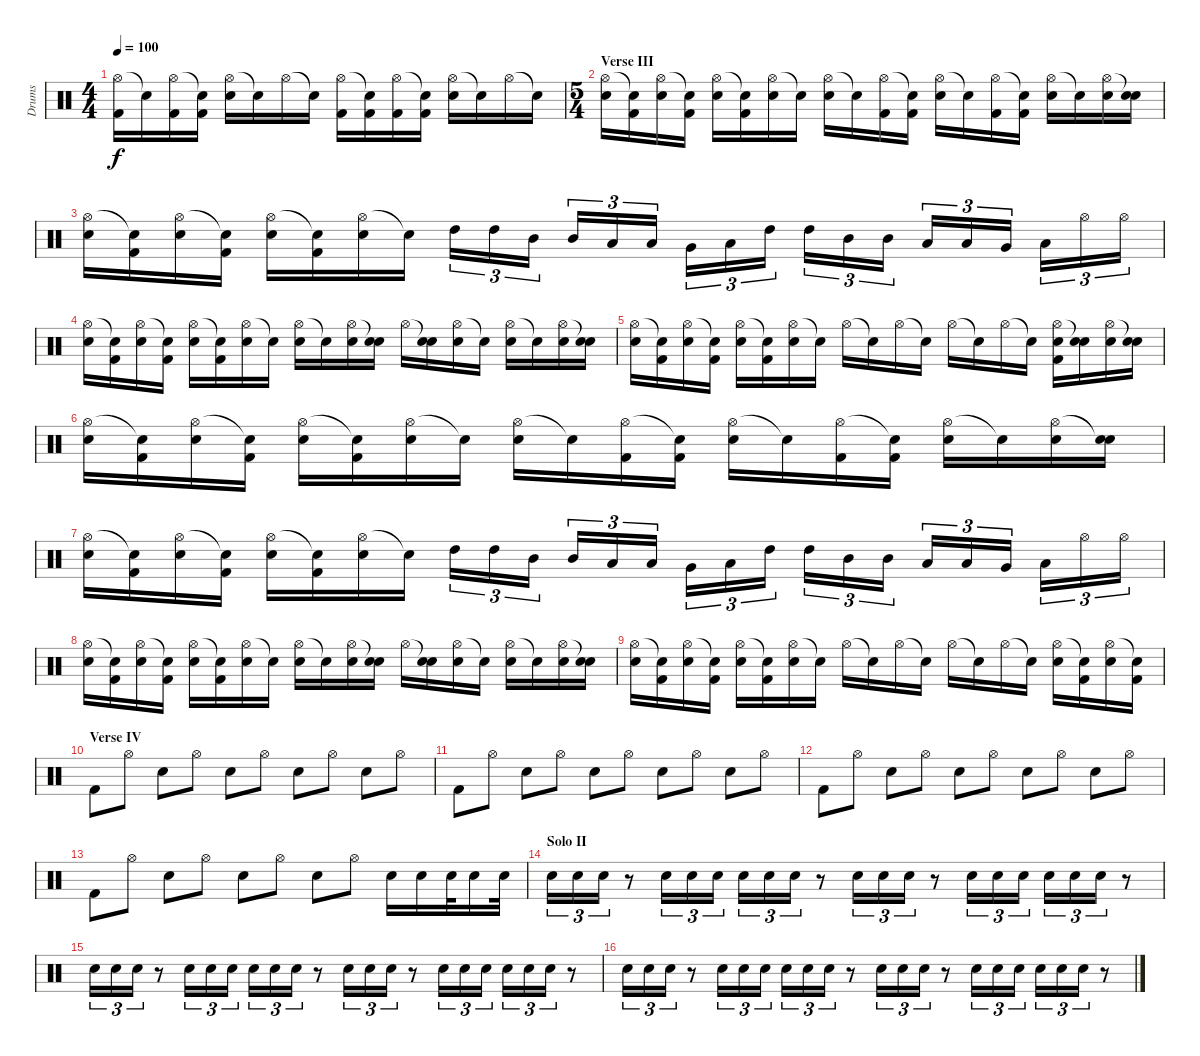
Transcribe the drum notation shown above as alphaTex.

\track ("Drums" "Drums") {instrument percussion}
\staff {score}
\articulation defaults
\ts (4 4)
\tempo 100
\clef neutral
\ks c
("Hi-Hat (open)" "Kick (hit) 2").16{dy f} "Snare (hit)"{t}.16 ("Hi-Hat (open)" "Kick (hit) 2").16 ("Snare (hit)"{t} "Kick (hit) 2").16 ("Hi-Hat (open)" "Electric Snare (hit)").16 "Snare (hit)"{t}.16 "Hi-Hat (open)".16 "Snare (hit)"{t}.16 ("Hi-Hat (open)" "Kick (hit) 2").16 ("Snare (hit)"{t} "Kick (hit) 2").16 ("Hi-Hat (open)" "Kick (hit) 2").16 ("Snare (hit)"{t} "Kick (hit) 2").16 ("Hi-Hat (open)" "Electric Snare (hit)").16 "Snare (hit)"{t}.16 "Hi-Hat (open)".16 "Snare (hit)"{t}.16 |
\ts (5 4)
\section ("" "Verse III")
("Hi-Hat (open)" "Electric Snare (hit)").16 ("Snare (hit)"{t} "Kick (hit) 2").16 ("Hi-Hat (open)" "Electric Snare (hit)").16 ("Snare (hit)"{t} "Kick (hit) 2").16 ("Hi-Hat (open)" "Electric Snare (hit)").16 ("Snare (hit)"{t} "Kick (hit) 2").16 ("Hi-Hat (open)" "Electric Snare (hit)").16 "Snare (hit)"{t}.16 ("Hi-Hat (open)" "Electric Snare (hit)").16 "Snare (hit)"{t}.16 ("Hi-Hat (open)" "Kick (hit) 2").16 ("Snare (hit)"{t} "Kick (hit) 2").16 ("Hi-Hat (open)" "Electric Snare (hit)").16 "Snare (hit)"{t}.16 ("Hi-Hat (open)" "Kick (hit) 2").16 ("Snare (hit)"{t} "Kick (hit) 2").16 ("Hi-Hat (open)" "Electric Snare (hit)").16 "Snare (hit)"{t}.16 ("Hi-Hat (open)" "Electric Snare (hit)").16 ("Snare (hit)"{t} "Electric Snare (hit)").16 |
("Hi-Hat (open)" "Electric Snare (hit)").16 ("Snare (hit)"{t} "Kick (hit) 2").16 ("Hi-Hat (open)" "Electric Snare (hit)").16 ("Snare (hit)"{t} "Kick (hit) 2").16 ("Hi-Hat (open)" "Electric Snare (hit)").16 ("Snare (hit)"{t} "Kick (hit) 2").16 ("Hi-Hat (open)" "Electric Snare (hit)").16 "Snare (hit)"{t}.16 "High Tom (hit)".16{tu (3 2)} "High Tom (hit)".16{tu (3 2)} "Mid Tom (hit)".16{tu (3 2)} "Mid Tom (hit)".16{tu (3 2)} "Low Tom (hit)".16{tu (3 2)} "Low Tom (hit)".16{tu (3 2)} "Very Low Tom (hit)".16{tu (3 2)} "Low Tom (hit)".16{tu (3 2)} "High Tom (hit)".16{tu (3 2)} "High Tom (hit)".16{tu (3 2)} "Mid Tom (hit)".16{tu (3 2)} "Mid Tom (hit)".16{tu (3 2)} "Low Tom (hit)".16{tu (3 2)} "Low Tom (hit)".16{tu (3 2)} "Very Low Tom (hit)".16{tu (3 2)} "Low Tom (hit)".16{tu (3 2)} "Hi-Hat (open)".16{tu (3 2)} "Hi-Hat (open)".16{tu (3 2)} |
("Hi-Hat (open)" "Electric Snare (hit)").16 ("Snare (hit)"{t} "Kick (hit) 2").16 ("Hi-Hat (open)" "Electric Snare (hit)").16 ("Snare (hit)"{t} "Kick (hit) 2").16 ("Hi-Hat (open)" "Electric Snare (hit)").16 ("Snare (hit)"{t} "Kick (hit) 2").16 ("Hi-Hat (open)" "Electric Snare (hit)").16 "Snare (hit)"{t}.16 ("Hi-Hat (open)" "Electric Snare (hit)").16 "Snare (hit)"{t}.16 ("Hi-Hat (open)" "Electric Snare (hit)").16 ("Snare (hit)"{t} "Electric Snare (hit)").16 "Hi-Hat (open)".16 ("Snare (hit)"{t} "Electric Snare (hit)").16 ("Hi-Hat (open)" "Electric Snare (hit)").16 "Snare (hit)"{t}.16 ("Hi-Hat (open)" "Electric Snare (hit)").16 "Snare (hit)"{t}.16 ("Hi-Hat (open)" "Electric Snare (hit)").16 ("Snare (hit)"{t} "Electric Snare (hit)").16 |
("Hi-Hat (open)" "Electric Snare (hit)").16 ("Snare (hit)"{t} "Kick (hit) 2").16 ("Hi-Hat (open)" "Electric Snare (hit)").16 ("Snare (hit)"{t} "Kick (hit) 2").16 ("Hi-Hat (open)" "Electric Snare (hit)").16 ("Snare (hit)"{t} "Kick (hit) 2").16 ("Hi-Hat (open)" "Electric Snare (hit)").16 "Snare (hit)"{t}.16 "Hi-Hat (open)".16 "Snare (hit)"{t}.16 "Hi-Hat (open)".16 "Snare (hit)"{t}.16 "Hi-Hat (open)".16 "Snare (hit)"{t}.16 "Hi-Hat (open)".16 "Snare (hit)"{t}.16 ("Hi-Hat (open)" "Electric Snare (hit)" "Kick (hit) 2").16 ("Snare (hit)"{t} "Electric Snare (hit)").16 ("Hi-Hat (open)" "Electric Snare (hit)").16 ("Snare (hit)"{t} "Electric Snare (hit)").16 |
("Hi-Hat (open)" "Electric Snare (hit)").16 ("Snare (hit)"{t} "Kick (hit) 2").16 ("Hi-Hat (open)" "Electric Snare (hit)").16 ("Snare (hit)"{t} "Kick (hit) 2").16 ("Hi-Hat (open)" "Electric Snare (hit)").16 ("Snare (hit)"{t} "Kick (hit) 2").16 ("Hi-Hat (open)" "Electric Snare (hit)").16 "Snare (hit)"{t}.16 ("Hi-Hat (open)" "Electric Snare (hit)").16 "Snare (hit)"{t}.16 ("Hi-Hat (open)" "Kick (hit) 2").16 ("Snare (hit)"{t} "Kick (hit) 2").16 ("Hi-Hat (open)" "Electric Snare (hit)").16 "Snare (hit)"{t}.16 ("Hi-Hat (open)" "Kick (hit) 2").16 ("Snare (hit)"{t} "Kick (hit) 2").16 ("Hi-Hat (open)" "Electric Snare (hit)").16 "Snare (hit)"{t}.16 ("Hi-Hat (open)" "Electric Snare (hit)").16 ("Snare (hit)"{t} "Electric Snare (hit)").16 |
("Hi-Hat (open)" "Electric Snare (hit)").16 ("Snare (hit)"{t} "Kick (hit) 2").16 ("Hi-Hat (open)" "Electric Snare (hit)").16 ("Snare (hit)"{t} "Kick (hit) 2").16 ("Hi-Hat (open)" "Electric Snare (hit)").16 ("Snare (hit)"{t} "Kick (hit) 2").16 ("Hi-Hat (open)" "Electric Snare (hit)").16 "Snare (hit)"{t}.16 "High Tom (hit)".16{tu (3 2)} "High Tom (hit)".16{tu (3 2)} "Mid Tom (hit)".16{tu (3 2)} "Mid Tom (hit)".16{tu (3 2)} "Low Tom (hit)".16{tu (3 2)} "Low Tom (hit)".16{tu (3 2)} "Very Low Tom (hit)".16{tu (3 2)} "Low Tom (hit)".16{tu (3 2)} "High Tom (hit)".16{tu (3 2)} "High Tom (hit)".16{tu (3 2)} "Mid Tom (hit)".16{tu (3 2)} "Mid Tom (hit)".16{tu (3 2)} "Low Tom (hit)".16{tu (3 2)} "Low Tom (hit)".16{tu (3 2)} "Very Low Tom (hit)".16{tu (3 2)} "Low Tom (hit)".16{tu (3 2)} "Hi-Hat (open)".16{tu (3 2)} "Hi-Hat (open)".16{tu (3 2)} |
("Hi-Hat (open)" "Electric Snare (hit)").16 ("Snare (hit)"{t} "Kick (hit) 2").16 ("Hi-Hat (open)" "Electric Snare (hit)").16 ("Snare (hit)"{t} "Kick (hit) 2").16 ("Hi-Hat (open)" "Electric Snare (hit)").16 ("Snare (hit)"{t} "Kick (hit) 2").16 ("Hi-Hat (open)" "Electric Snare (hit)").16 "Snare (hit)"{t}.16 ("Hi-Hat (open)" "Electric Snare (hit)").16 "Snare (hit)"{t}.16 ("Hi-Hat (open)" "Electric Snare (hit)").16 ("Snare (hit)"{t} "Electric Snare (hit)").16 "Hi-Hat (open)".16 ("Snare (hit)"{t} "Electric Snare (hit)").16 ("Hi-Hat (open)" "Electric Snare (hit)").16 "Snare (hit)"{t}.16 ("Hi-Hat (open)" "Electric Snare (hit)").16 "Snare (hit)"{t}.16 ("Hi-Hat (open)" "Electric Snare (hit)").16 ("Snare (hit)"{t} "Electric Snare (hit)").16 |
("Hi-Hat (open)" "Electric Snare (hit)").16 ("Snare (hit)"{t} "Kick (hit) 2").16 ("Hi-Hat (open)" "Electric Snare (hit)").16 ("Snare (hit)"{t} "Kick (hit) 2").16 ("Hi-Hat (open)" "Electric Snare (hit)").16 ("Snare (hit)"{t} "Kick (hit) 2").16 ("Hi-Hat (open)" "Electric Snare (hit)").16 "Snare (hit)"{t}.16 "Hi-Hat (open)".16 "Snare (hit)"{t}.16 "Hi-Hat (open)".16 "Snare (hit)"{t}.16 "Hi-Hat (open)".16 "Snare (hit)"{t}.16 "Hi-Hat (open)".16 "Snare (hit)"{t}.16 ("Hi-Hat (open)" "Electric Snare (hit)").16 ("Snare (hit)"{t} "Kick (hit) 2").16 ("Hi-Hat (open)" "Electric Snare (hit)").16 ("Snare (hit)"{t} "Kick (hit) 2").16 |
\section ("" "Verse IV")
"Kick (hit) 2".8 "Hi-Hat (open)".8 "Electric Snare (hit)".8 "Hi-Hat (open)".8 "Electric Snare (hit)".8 "Hi-Hat (open)".8 "Electric Snare (hit)".8 "Hi-Hat (open)".8 "Electric Snare (hit)".8 "Hi-Hat (open)".8 |
"Kick (hit) 2".8 "Hi-Hat (open)".8 "Electric Snare (hit)".8 "Hi-Hat (open)".8 "Electric Snare (hit)".8 "Hi-Hat (open)".8 "Electric Snare (hit)".8 "Hi-Hat (open)".8 "Electric Snare (hit)".8 "Hi-Hat (open)".8 |
"Kick (hit) 2".8 "Hi-Hat (open)".8 "Electric Snare (hit)".8 "Hi-Hat (open)".8 "Electric Snare (hit)".8 "Hi-Hat (open)".8 "Electric Snare (hit)".8 "Hi-Hat (open)".8 "Electric Snare (hit)".8 "Hi-Hat (open)".8 |
"Kick (hit) 2".8 "Hi-Hat (open)".8 "Electric Snare (hit)".8 "Hi-Hat (open)".8 "Electric Snare (hit)".8 "Hi-Hat (open)".8 "Electric Snare (hit)".8 "Hi-Hat (open)".8 "Electric Snare (hit)".16 "Electric Snare (hit)".16 "Electric Snare (hit)".32 "Electric Snare (hit)".16 "Electric Snare (hit)".32 |
\section ("" "Solo II")
"Electric Snare (hit)".16{tu (3 2)} "Electric Snare (hit)".16{tu (3 2)} "Electric Snare (hit)".16{tu (3 2)} r.8 "Electric Snare (hit)".16{tu (3 2)} "Electric Snare (hit)".16{tu (3 2)} "Electric Snare (hit)".16{tu (3 2)} "Electric Snare (hit)".16{tu (3 2)} "Electric Snare (hit)".16{tu (3 2)} "Electric Snare (hit)".16{tu (3 2)} r.8 "Electric Snare (hit)".16{tu (3 2)} "Electric Snare (hit)".16{tu (3 2)} "Electric Snare (hit)".16{tu (3 2)} r.8 "Electric Snare (hit)".16{tu (3 2)} "Electric Snare (hit)".16{tu (3 2)} "Electric Snare (hit)".16{tu (3 2)} "Electric Snare (hit)".16{tu (3 2)} "Electric Snare (hit)".16{tu (3 2)} "Electric Snare (hit)".16{tu (3 2)} r.8 |
"Electric Snare (hit)".16{tu (3 2)} "Electric Snare (hit)".16{tu (3 2)} "Electric Snare (hit)".16{tu (3 2)} r.8 "Electric Snare (hit)".16{tu (3 2)} "Electric Snare (hit)".16{tu (3 2)} "Electric Snare (hit)".16{tu (3 2)} "Electric Snare (hit)".16{tu (3 2)} "Electric Snare (hit)".16{tu (3 2)} "Electric Snare (hit)".16{tu (3 2)} r.8 "Electric Snare (hit)".16{tu (3 2)} "Electric Snare (hit)".16{tu (3 2)} "Electric Snare (hit)".16{tu (3 2)} r.8 "Electric Snare (hit)".16{tu (3 2)} "Electric Snare (hit)".16{tu (3 2)} "Electric Snare (hit)".16{tu (3 2)} "Electric Snare (hit)".16{tu (3 2)} "Electric Snare (hit)".16{tu (3 2)} "Electric Snare (hit)".16{tu (3 2)} r.8 |
"Electric Snare (hit)".16{tu (3 2)} "Electric Snare (hit)".16{tu (3 2)} "Electric Snare (hit)".16{tu (3 2)} r.8 "Electric Snare (hit)".16{tu (3 2)} "Electric Snare (hit)".16{tu (3 2)} "Electric Snare (hit)".16{tu (3 2)} "Electric Snare (hit)".16{tu (3 2)} "Electric Snare (hit)".16{tu (3 2)} "Electric Snare (hit)".16{tu (3 2)} r.8 "Electric Snare (hit)".16{tu (3 2)} "Electric Snare (hit)".16{tu (3 2)} "Electric Snare (hit)".16{tu (3 2)} r.8 "Electric Snare (hit)".16{tu (3 2)} "Electric Snare (hit)".16{tu (3 2)} "Electric Snare (hit)".16{tu (3 2)} "Electric Snare (hit)".16{tu (3 2)} "Electric Snare (hit)".16{tu (3 2)} "Electric Snare (hit)".16{tu (3 2)} r.8
